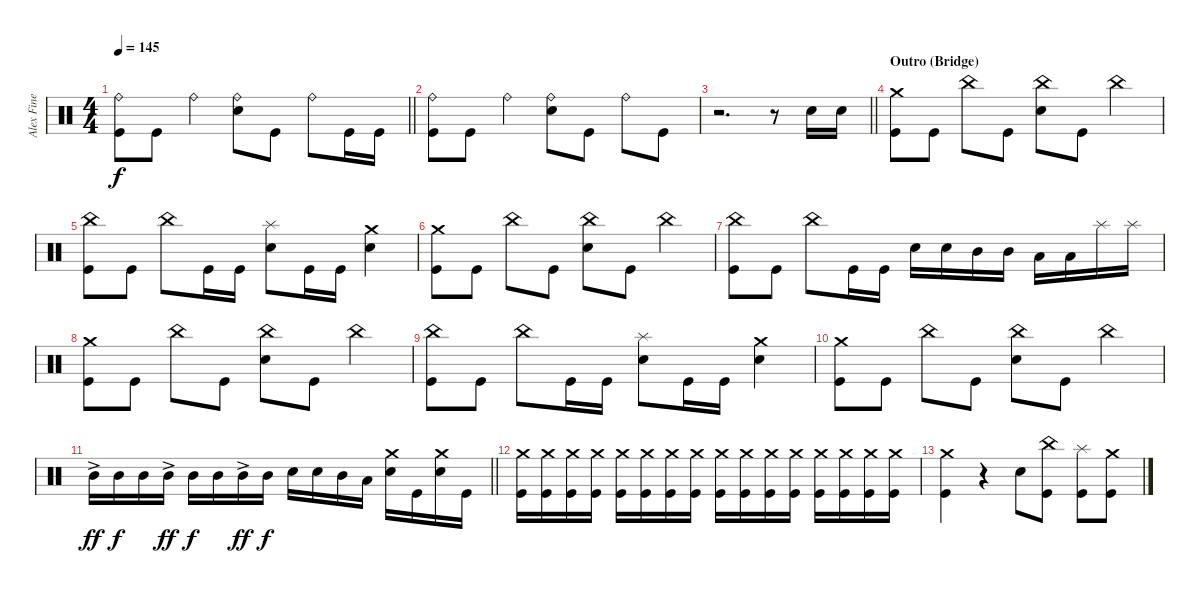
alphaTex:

\track ("Alex Fine (Drums)" "Alex Fine ") {instrument percussion}
\staff {score}
\articulation defaults
\ts (4 4)
\tempo 145
\clef neutral
\barLineRight lightlight
\ks c
("Ride (bell)" "Kick (hit)").8{dy f} "Kick (hit)".8 "Ride (bell)".4 ("Ride (bell)" "Snare (hit) 2").8 "Kick (hit)".8 "Ride (bell)".8 "Kick (hit)".16 "Kick (hit)".16 |
("Ride (bell)" "Kick (hit)").8 "Kick (hit)".8 "Ride (bell)".4 ("Ride (bell)" "Snare (hit) 2").8 "Kick (hit)".8 "Ride (bell)".8 "Kick (hit)".8 |
\barLineRight lightlight
r.2{d} r.8 "Snare (hit) 2".16 "Snare (hit) 2".16 |
\section ("" "Outro (Bridge)")
("Crash medium (hit)" "Kick (hit)").8 "Kick (hit)".8 "China (hit)".8 "Kick (hit)".8 ("China (hit)" "Snare (hit) 2").8 "Kick (hit)".8 "China (hit)".4 |
("China (hit)" "Kick (hit)").8 "Kick (hit)".8 "China (hit)".8 "Kick (hit)".16 "Kick (hit)".16 ("Splash (hit)" "Snare (hit) 2").8 "Kick (hit)".16 "Kick (hit)".16 ("Crash medium (hit)" "Electric Snare (hit)").4 |
("Crash medium (hit)" "Kick (hit)").8 "Kick (hit)".8 "China (hit)".8 "Kick (hit)".8 ("China (hit)" "Snare (hit) 2").8 "Kick (hit)".8 "China (hit)".4 |
("China (hit)" "Kick (hit)").8 "Kick (hit)".8 "China (hit)".8 "Kick (hit)".16 "Kick (hit)".16 "Snare (hit) 2".16 "Snare (hit) 2".16 "Mid Tom (hit)".16 "Mid Tom (hit)".16 "Low Tom (hit)".16 "Low Tom (hit)".16 "Splash (hit)".16 "Splash (hit)".16 |
("Crash medium (hit)" "Kick (hit)").8 "Kick (hit)".8 "China (hit)".8 "Kick (hit)".8 ("China (hit)" "Snare (hit) 2").8 "Kick (hit)".8 "China (hit)".4 |
("China (hit)" "Kick (hit)").8 "Kick (hit)".8 "China (hit)".8 "Kick (hit)".16 "Kick (hit)".16 ("Splash (hit)" "Snare (hit) 2").8 "Kick (hit)".16 "Kick (hit)".16 ("Crash medium (hit)" "Snare (hit) 2").4 |
("Crash medium (hit)" "Kick (hit)").8 "Kick (hit)".8 "China (hit)".8 "Kick (hit)".8 ("China (hit)" "Snare (hit) 2").8 "Kick (hit)".8 "China (hit)".4 |
\barLineRight lightlight "Mid Tom (hit)"{ac}.16{dy ff} "Mid Tom (hit)".16{dy f} "Mid Tom (hit)".16 "Mid Tom (hit)"{ac}.16{dy ff} "Mid Tom (hit)".16{dy f} "Mid Tom (hit)".16 "Mid Tom (hit)"{ac}.16{dy ff} "Mid Tom (hit)".16{dy f} "Snare (hit) 2".16 "Snare (hit) 2".16 "Mid Tom (hit)".16 "Low Tom (hit)".16
("Crash medium (hit)" "Snare (hit) 2").16 "Kick (hit)".16 ("Crash medium (hit)" "Snare (hit) 2").16 "Kick (hit)".16 |
("Crash medium (hit)" "Kick (hit)").16 ("Crash medium (hit)" "Kick (hit)").16 ("Crash medium (hit)" "Kick (hit)").16 ("Crash medium (hit)" "Kick (hit)").16 ("Crash medium (hit)" "Kick (hit)").16 ("Crash medium (hit)" "Kick (hit)").16 ("Crash medium (hit)" "Kick (hit)").16 ("Crash medium (hit)" "Kick (hit)").16 ("Crash medium (hit)" "Kick (hit)").16 ("Crash medium (hit)" "Kick (hit)").16 ("Crash medium (hit)" "Kick (hit)").16 ("Crash medium (hit)" "Kick (hit)").16 ("Crash medium (hit)" "Kick (hit)").16 ("Crash medium (hit)" "Kick (hit)").16 ("Crash medium (hit)" "Kick (hit)").16 ("Crash medium (hit)" "Kick (hit)").16 |
("Crash medium (hit)" "Kick (hit)").4 r.4 "Snare (hit) 2".8 ("China (hit)" "Kick (hit)").8 ("Splash (hit)" "Kick (hit)").8 ("Crash medium (hit)" "Kick (hit)").8
